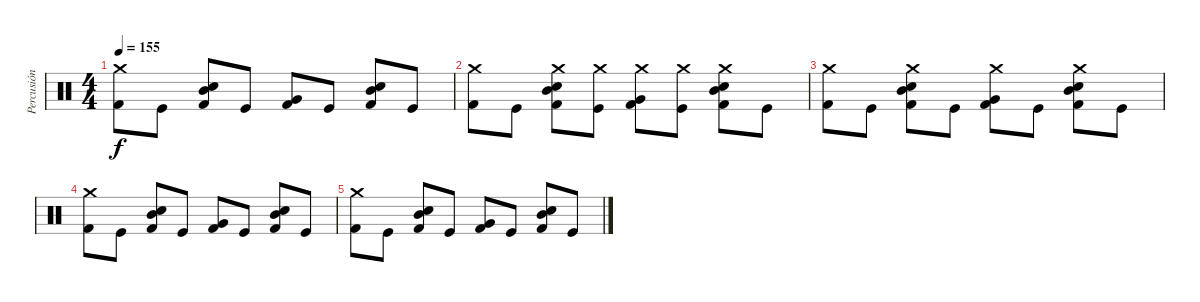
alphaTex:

\track ("Percusión" "Percusión") {instrument percussion}
\staff {score}
\articulation defaults
\ts (4 4)
\tempo 155
\clef neutral
\ks c
("Crash medium (hit)" "Kick (hit) 2").8{dy f} "Kick (hit)".8 ("Mid Tom (hit)" "Electric Snare (hit)" "Kick (hit) 2").8 "Kick (hit)".8 ("Very Low Tom (hit)" "Kick (hit) 2").8 "Kick (hit)".8 ("Mid Tom (hit)" "Electric Snare (hit)" "Kick (hit) 2").8 "Kick (hit)".8 |
("Crash medium (hit)" "Kick (hit) 2").8 "Kick (hit)".8 ("Crash medium (hit)" "Mid Tom (hit)" "Electric Snare (hit)" "Kick (hit) 2").8 ("Crash medium (hit)" "Kick (hit)").8 ("Crash medium (hit)" "Very Low Tom (hit)" "Kick (hit) 2").8 ("Crash medium (hit)" "Kick (hit)").8 ("Crash medium (hit)" "Mid Tom (hit)" "Electric Snare (hit)" "Kick (hit) 2").8 "Kick (hit)".8 |
("Crash medium (hit)" "Kick (hit) 2").8 "Kick (hit)".8 ("Crash medium (hit)" "Mid Tom (hit)" "Electric Snare (hit)" "Kick (hit) 2").8 "Kick (hit)".8 ("Crash medium (hit)" "Very Low Tom (hit)" "Kick (hit) 2").8 "Kick (hit)".8 ("Crash medium (hit)" "Mid Tom (hit)" "Electric Snare (hit)" "Kick (hit) 2").8 "Kick (hit)".8 |
("Crash medium (hit)" "Kick (hit) 2").8 "Kick (hit)".8 ("Mid Tom (hit)" "Electric Snare (hit)" "Kick (hit) 2").8 "Kick (hit)".8 ("Very Low Tom (hit)" "Kick (hit) 2").8 "Kick (hit)".8 ("Mid Tom (hit)" "Electric Snare (hit)" "Kick (hit) 2").8 "Kick (hit)".8 |
("Crash medium (hit)" "Kick (hit) 2").8 "Kick (hit)".8 ("Mid Tom (hit)" "Electric Snare (hit)" "Kick (hit) 2").8 "Kick (hit)".8 ("Very Low Tom (hit)" "Kick (hit) 2").8 "Kick (hit)".8 ("Mid Tom (hit)" "Electric Snare (hit)" "Kick (hit) 2").8 "Kick (hit)".8
